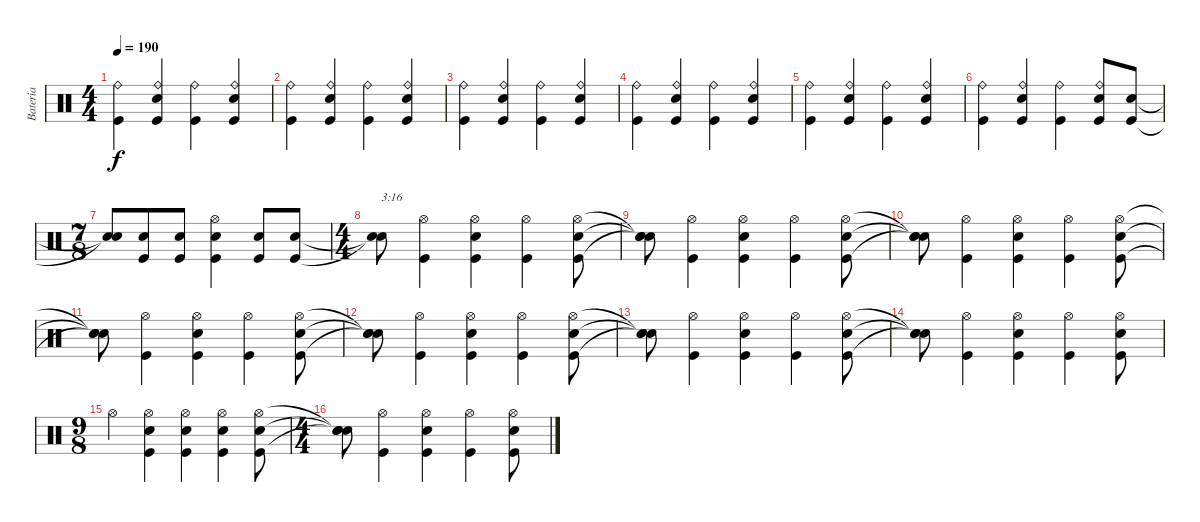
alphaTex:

\track ("Bateria" "Bateria") {instrument percussion}
\staff {score}
\articulation defaults
\ts (4 4)
\tempo 190
\clef neutral
\ks c
("Kick (hit)" "Ride (bell)").4{dy f} ("Kick (hit)" "Snare (hit) 2" "Ride (bell)").4 ("Kick (hit)" "Ride (bell)").4 ("Kick (hit)" "Snare (hit) 2" "Ride (bell)").4 |
("Kick (hit)" "Ride (bell)").4 ("Kick (hit)" "Snare (hit) 2" "Ride (bell)").4 ("Kick (hit)" "Ride (bell)").4 ("Kick (hit)" "Snare (hit) 2" "Ride (bell)").4 |
("Kick (hit)" "Ride (bell)").4 ("Kick (hit)" "Snare (hit) 2" "Ride (bell)").4 ("Kick (hit)" "Ride (bell)").4 ("Kick (hit)" "Snare (hit) 2" "Ride (bell)").4 |
("Kick (hit)" "Ride (bell)").4 ("Kick (hit)" "Snare (hit) 2" "Ride (bell)").4 ("Kick (hit)" "Ride (bell)").4 ("Kick (hit)" "Snare (hit) 2" "Ride (bell)").4 |
("Kick (hit)" "Ride (bell)").4 ("Kick (hit)" "Snare (hit) 2" "Ride (bell)").4 ("Kick (hit)" "Ride (bell)").4 ("Kick (hit)" "Snare (hit) 2" "Ride (bell)").4 |
("Kick (hit)" "Ride (bell)").4 ("Kick (hit)" "Snare (hit) 2" "Ride (bell)").4 ("Kick (hit)" "Ride (bell)").4 ("Kick (hit)" "Snare (hit) 2" "Ride (bell)").8 ("Kick (hit)" "Snare (hit) 2").8 |
\ts (7 8)
("Snare (hit)"{t} "Snare (hit)"{t}).8 ("Kick (hit)" "Snare (hit) 2").8 ("Kick (hit)" "Snare (hit) 2").8 ("Kick (hit)" "Snare (hit) 2" "Hi-Hat (open)").4 ("Kick (hit)" "Snare (hit) 2").8 ("Kick (hit)" "Snare (hit) 2").8 |
\ts (4 4)
("Snare (hit)"{t} "Snare (hit)"{t}).8{txt "3:16"} ("Kick (hit)" "Hi-Hat (open)").4 ("Kick (hit)" "Snare (hit) 2" "Hi-Hat (open)").4 ("Kick (hit)" "Hi-Hat (open)").4 ("Kick (hit)" "Snare (hit) 2" "Hi-Hat (open)").8 |
("Snare (hit)"{t} "Snare (hit)"{t} "Snare (hit)"{t}).8 ("Kick (hit)" "Hi-Hat (open)").4 ("Kick (hit)" "Snare (hit) 2" "Hi-Hat (open)").4 ("Kick (hit)" "Hi-Hat (open)").4 ("Kick (hit)" "Snare (hit) 2" "Hi-Hat (open)").8 |
("Snare (hit)"{t} "Snare (hit)"{t} "Snare (hit)"{t}).8 ("Kick (hit)" "Hi-Hat (open)").4 ("Kick (hit)" "Snare (hit) 2" "Hi-Hat (open)").4 ("Kick (hit)" "Hi-Hat (open)").4 ("Kick (hit)" "Snare (hit) 2" "Hi-Hat (open)").8 |
("Snare (hit)"{t} "Snare (hit)"{t} "Snare (hit)"{t}).8 ("Kick (hit)" "Hi-Hat (open)").4 ("Kick (hit)" "Snare (hit) 2" "Hi-Hat (open)").4 ("Kick (hit)" "Hi-Hat (open)").4 ("Kick (hit)" "Snare (hit) 2" "Hi-Hat (open)").8 |
("Snare (hit)"{t} "Snare (hit)"{t} "Snare (hit)"{t}).8 ("Kick (hit)" "Hi-Hat (open)").4 ("Kick (hit)" "Snare (hit) 2" "Hi-Hat (open)").4 ("Kick (hit)" "Hi-Hat (open)").4 ("Kick (hit)" "Snare (hit) 2" "Hi-Hat (open)").8 |
("Snare (hit)"{t} "Snare (hit)"{t} "Snare (hit)"{t}).8 ("Kick (hit)" "Hi-Hat (open)").4 ("Kick (hit)" "Snare (hit) 2" "Hi-Hat (open)").4 ("Kick (hit)" "Hi-Hat (open)").4 ("Kick (hit)" "Snare (hit) 2" "Hi-Hat (open)").8 |
("Snare (hit)"{t} "Snare (hit)"{t} "Snare (hit)"{t}).8 ("Kick (hit)" "Hi-Hat (open)").4 ("Kick (hit)" "Snare (hit) 2" "Hi-Hat (open)").4 ("Kick (hit)" "Hi-Hat (open)").4 ("Kick (hit)" "Snare (hit) 2" "Hi-Hat (open)").8 |
\ts (9 8)
"Hi-Hat (open)".4 ("Kick (hit)" "Snare (hit) 2" "Hi-Hat (open)").4 ("Kick (hit)" "Snare (hit) 2" "Hi-Hat (open)").4 ("Kick (hit)" "Snare (hit) 2" "Hi-Hat (open)").4 ("Kick (hit)" "Snare (hit) 2" "Hi-Hat (open)").8 |
\ts (4 4)
("Snare (hit)"{t} "Snare (hit)"{t} "Snare (hit)"{t}).8 ("Kick (hit)" "Hi-Hat (open)").4 ("Kick (hit)" "Snare (hit) 2" "Hi-Hat (open)").4 ("Kick (hit)" "Hi-Hat (open)").4 ("Kick (hit)" "Snare (hit) 2" "Hi-Hat (open)").8
